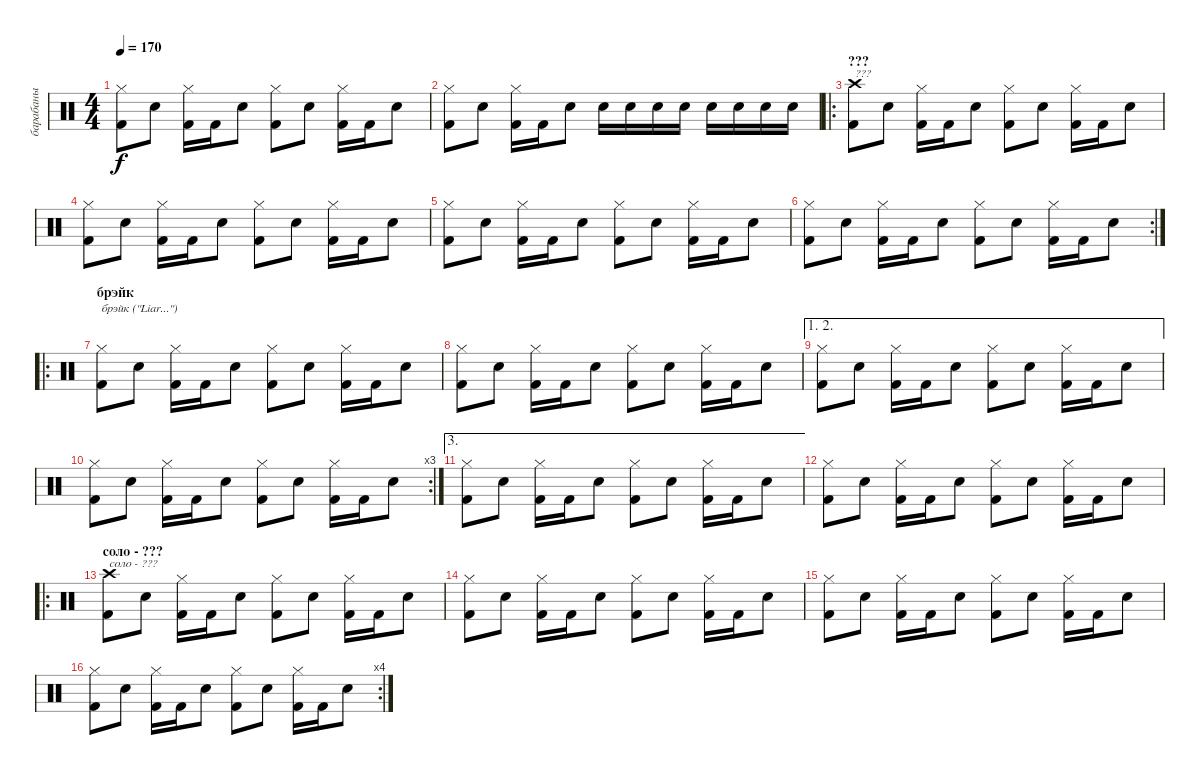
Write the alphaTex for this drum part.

\track ("барабаны" "барабаны") {instrument percussion}
\staff {score}
\articulation defaults
\ts (4 4)
\tempo 170
\clef neutral
\ks c
("Hi-Hat (closed)" "Kick (hit) 2").8{dy f} "Snare (hit) 2".8 ("Hi-Hat (closed)" "Kick (hit) 2").16 "Kick (hit) 2".16 "Snare (hit) 2".8 ("Hi-Hat (closed)" "Kick (hit) 2").8 "Snare (hit) 2".8 ("Hi-Hat (closed)" "Kick (hit) 2").16 "Kick (hit) 2".16 "Snare (hit) 2".8 |
("Hi-Hat (closed)" "Kick (hit) 2").8 "Snare (hit) 2".8 ("Hi-Hat (closed)" "Kick (hit) 2").16 "Kick (hit) 2".16 "Snare (hit) 2".8 "Snare (hit) 2".16 "Snare (hit) 2".16 "Snare (hit) 2".16 "Snare (hit) 2".16 "Snare (hit) 2".16 "Snare (hit) 2".16 "Snare (hit) 2".16 "Snare (hit) 2".16 |
\ro
\section ("" "???")
("Crash high (hit)" "Kick (hit) 2").8{txt "???"} "Snare (hit) 2".8 ("Hi-Hat (closed)" "Kick (hit) 2").16 "Kick (hit) 2".16 "Snare (hit) 2".8 ("Hi-Hat (closed)" "Kick (hit) 2").8 "Snare (hit) 2".8 ("Hi-Hat (closed)" "Kick (hit) 2").16 "Kick (hit) 2".16 "Snare (hit) 2".8 |
("Hi-Hat (closed)" "Kick (hit) 2").8 "Snare (hit) 2".8 ("Hi-Hat (closed)" "Kick (hit) 2").16 "Kick (hit) 2".16 "Snare (hit) 2".8 ("Hi-Hat (closed)" "Kick (hit) 2").8 "Snare (hit) 2".8 ("Hi-Hat (closed)" "Kick (hit) 2").16 "Kick (hit) 2".16 "Snare (hit) 2".8 |
("Hi-Hat (closed)" "Kick (hit) 2").8 "Snare (hit) 2".8 ("Hi-Hat (closed)" "Kick (hit) 2").16 "Kick (hit) 2".16 "Snare (hit) 2".8 ("Hi-Hat (closed)" "Kick (hit) 2").8 "Snare (hit) 2".8 ("Hi-Hat (closed)" "Kick (hit) 2").16 "Kick (hit) 2".16 "Snare (hit) 2".8 |
\rc 2
("Hi-Hat (closed)" "Kick (hit) 2").8 "Snare (hit) 2".8 ("Hi-Hat (closed)" "Kick (hit) 2").16 "Kick (hit) 2".16 "Snare (hit) 2".8 ("Hi-Hat (closed)" "Kick (hit) 2").8 "Snare (hit) 2".8 ("Hi-Hat (closed)" "Kick (hit) 2").16 "Kick (hit) 2".16 "Snare (hit) 2".8 |
\ro
\section ("" "брэйк")
("Hi-Hat (closed)" "Kick (hit) 2").8{txt "брэйк (\"Liar...\")"} "Snare (hit) 2".8 ("Hi-Hat (closed)" "Kick (hit) 2").16 "Kick (hit) 2".16 "Snare (hit) 2".8 ("Hi-Hat (closed)" "Kick (hit) 2").8 "Snare (hit) 2".8 ("Hi-Hat (closed)" "Kick (hit) 2").16 "Kick (hit) 2".16 "Snare (hit) 2".8 |
("Hi-Hat (closed)" "Kick (hit) 2").8 "Snare (hit) 2".8 ("Hi-Hat (closed)" "Kick (hit) 2").16 "Kick (hit) 2".16 "Snare (hit) 2".8 ("Hi-Hat (closed)" "Kick (hit) 2").8 "Snare (hit) 2".8 ("Hi-Hat (closed)" "Kick (hit) 2").16 "Kick (hit) 2".16 "Snare (hit) 2".8 |
\ae (1 2)
("Hi-Hat (closed)" "Kick (hit) 2").8 "Snare (hit) 2".8 ("Hi-Hat (closed)" "Kick (hit) 2").16 "Kick (hit) 2".16 "Snare (hit) 2".8 ("Hi-Hat (closed)" "Kick (hit) 2").8 "Snare (hit) 2".8 ("Hi-Hat (closed)" "Kick (hit) 2").16 "Kick (hit) 2".16 "Snare (hit) 2".8 |
\rc 3
("Hi-Hat (closed)" "Kick (hit) 2").8 "Snare (hit) 2".8 ("Hi-Hat (closed)" "Kick (hit) 2").16 "Kick (hit) 2".16 "Snare (hit) 2".8 ("Hi-Hat (closed)" "Kick (hit) 2").8 "Snare (hit) 2".8 ("Hi-Hat (closed)" "Kick (hit) 2").16 "Kick (hit) 2".16 "Snare (hit) 2".8 |
\ae 3
("Hi-Hat (closed)" "Kick (hit) 2").8 "Snare (hit) 2".8 ("Hi-Hat (closed)" "Kick (hit) 2").16 "Kick (hit) 2".16 "Snare (hit) 2".8 ("Hi-Hat (closed)" "Kick (hit) 2").8 "Snare (hit) 2".8 ("Hi-Hat (closed)" "Kick (hit) 2").16 "Kick (hit) 2".16 "Snare (hit) 2".8 |
("Hi-Hat (closed)" "Kick (hit) 2").8 "Snare (hit) 2".8 ("Hi-Hat (closed)" "Kick (hit) 2").16 "Kick (hit) 2".16 "Snare (hit) 2".8 ("Hi-Hat (closed)" "Kick (hit) 2").8 "Snare (hit) 2".8 ("Hi-Hat (closed)" "Kick (hit) 2").16 "Kick (hit) 2".16 "Snare (hit) 2".8 |
\ro
\section ("" "соло - ???")
("Crash high (hit)" "Kick (hit) 2").8{txt "соло - ???"} "Snare (hit) 2".8 ("Hi-Hat (closed)" "Kick (hit) 2").16 "Kick (hit) 2".16 "Snare (hit) 2".8 ("Hi-Hat (closed)" "Kick (hit) 2").8 "Snare (hit) 2".8 ("Hi-Hat (closed)" "Kick (hit) 2").16 "Kick (hit) 2".16 "Snare (hit) 2".8 |
("Hi-Hat (closed)" "Kick (hit) 2").8 "Snare (hit) 2".8 ("Hi-Hat (closed)" "Kick (hit) 2").16 "Kick (hit) 2".16 "Snare (hit) 2".8 ("Hi-Hat (closed)" "Kick (hit) 2").8 "Snare (hit) 2".8 ("Hi-Hat (closed)" "Kick (hit) 2").16 "Kick (hit) 2".16 "Snare (hit) 2".8 |
("Hi-Hat (closed)" "Kick (hit) 2").8 "Snare (hit) 2".8 ("Hi-Hat (closed)" "Kick (hit) 2").16 "Kick (hit) 2".16 "Snare (hit) 2".8 ("Hi-Hat (closed)" "Kick (hit) 2").8 "Snare (hit) 2".8 ("Hi-Hat (closed)" "Kick (hit) 2").16 "Kick (hit) 2".16 "Snare (hit) 2".8 |
\rc 4
("Hi-Hat (closed)" "Kick (hit) 2").8 "Snare (hit) 2".8 ("Hi-Hat (closed)" "Kick (hit) 2").16 "Kick (hit) 2".16 "Snare (hit) 2".8 ("Hi-Hat (closed)" "Kick (hit) 2").8 "Snare (hit) 2".8 ("Hi-Hat (closed)" "Kick (hit) 2").16 "Kick (hit) 2".16 "Snare (hit) 2".8
